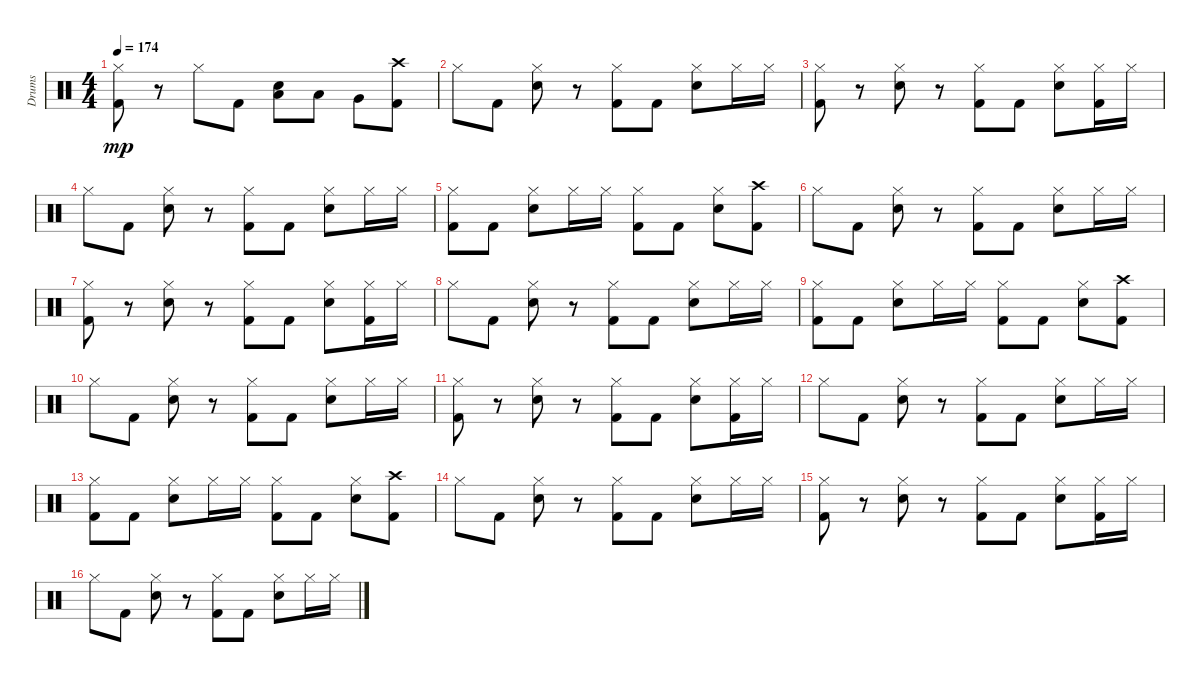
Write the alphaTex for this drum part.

\track ("Drums" "Drums") {instrument percussion}
\staff {score}
\articulation defaults
\ts (4 4)
\tempo 174
\clef neutral
\ks c
("Hi-Hat (closed)" "Kick (hit) 2").8{dy mp} r.8 "Hi-Hat (closed)".8 "Kick (hit) 2".8 ("Snare (hit) 2" "Low Floor Tom (hit)").8 "Low Tom (hit)".8 "Very Low Tom (hit)".8 ("Crash high (hit)" "Kick (hit) 2").8 |
"Hi-Hat (closed)".8 "Kick (hit) 2".8 ("Hi-Hat (closed)" "Snare (hit) 2").8 r.8 ("Hi-Hat (closed)" "Kick (hit) 2").8 "Kick (hit) 2".8 ("Hi-Hat (closed)" "Snare (hit) 2").8 "Hi-Hat (closed)".16 "Hi-Hat (closed)".16 |
("Kick (hit) 2" "Hi-Hat (closed)").8 r.8 ("Hi-Hat (closed)" "Snare (hit) 2").8 r.8 ("Kick (hit) 2" "Hi-Hat (closed)").8 "Kick (hit) 2".8 ("Hi-Hat (closed)" "Snare (hit) 2").8 ("Kick (hit) 2" "Hi-Hat (closed)").16 "Hi-Hat (closed)".16 |
"Hi-Hat (closed)".8 "Kick (hit) 2".8 ("Snare (hit) 2" "Hi-Hat (closed)").8 r.8 ("Kick (hit) 2" "Hi-Hat (closed)").8 "Kick (hit) 2".8 ("Snare (hit) 2" "Hi-Hat (closed)").8 "Hi-Hat (closed)".16 "Hi-Hat (closed)".16 |
("Kick (hit) 2" "Hi-Hat (closed)").8 "Kick (hit) 2".8 ("Hi-Hat (closed)" "Snare (hit) 2").8 "Hi-Hat (closed)".16 "Hi-Hat (closed)".16 ("Hi-Hat (closed)" "Kick (hit) 2").8 "Kick (hit) 2".8 ("Hi-Hat (closed)" "Snare (hit) 2").8 ("Crash high (hit)" "Kick (hit) 2").8 |
"Hi-Hat (closed)".8 "Kick (hit) 2".8 ("Hi-Hat (closed)" "Snare (hit) 2").8 r.8 ("Kick (hit) 2" "Hi-Hat (closed)").8 "Kick (hit) 2".8 ("Hi-Hat (closed)" "Snare (hit) 2").8 "Hi-Hat (closed)".16 "Hi-Hat (closed)".16 |
("Kick (hit) 2" "Hi-Hat (closed)").8 r.8 ("Hi-Hat (closed)" "Snare (hit) 2").8 r.8 ("Kick (hit) 2" "Hi-Hat (closed)").8 "Kick (hit) 2".8 ("Snare (hit) 2" "Hi-Hat (closed)").8 ("Hi-Hat (closed)" "Kick (hit) 2").16 "Hi-Hat (closed)".16 |
"Hi-Hat (closed)".8 "Kick (hit) 2".8 ("Snare (hit) 2" "Hi-Hat (closed)").8 r.8 ("Hi-Hat (closed)" "Kick (hit) 2").8 "Kick (hit) 2".8 ("Hi-Hat (closed)" "Snare (hit) 2").8 "Hi-Hat (closed)".16 "Hi-Hat (closed)".16 |
("Hi-Hat (closed)" "Kick (hit) 2").8 "Kick (hit) 2".8 ("Hi-Hat (closed)" "Snare (hit) 2").8 "Hi-Hat (closed)".16 "Hi-Hat (closed)".16 ("Kick (hit) 2" "Hi-Hat (closed)").8 "Kick (hit) 2".8 ("Hi-Hat (closed)" "Snare (hit) 2").8 ("Kick (hit) 2" "Crash high (hit)").8 |
"Hi-Hat (closed)".8 "Kick (hit) 2".8 ("Snare (hit) 2" "Hi-Hat (closed)").8 r.8 ("Kick (hit) 2" "Hi-Hat (closed)").8 "Kick (hit) 2".8 ("Hi-Hat (closed)" "Snare (hit) 2").8 "Hi-Hat (closed)".16 "Hi-Hat (closed)".16 |
("Kick (hit) 2" "Hi-Hat (closed)").8 r.8 ("Hi-Hat (closed)" "Snare (hit) 2").8 r.8 ("Hi-Hat (closed)" "Kick (hit) 2").8 "Kick (hit) 2".8 ("Snare (hit) 2" "Hi-Hat (closed)").8 ("Kick (hit) 2" "Hi-Hat (closed)").16 "Hi-Hat (closed)".16 |
"Hi-Hat (closed)".8 "Kick (hit) 2".8 ("Hi-Hat (closed)" "Snare (hit) 2").8 r.8 ("Hi-Hat (closed)" "Kick (hit) 2").8 "Kick (hit) 2".8 ("Hi-Hat (closed)" "Snare (hit) 2").8 "Hi-Hat (closed)".16 "Hi-Hat (closed)".16 |
("Hi-Hat (closed)" "Kick (hit) 2").8 "Kick (hit) 2".8 ("Snare (hit) 2" "Hi-Hat (closed)").8 "Hi-Hat (closed)".16 "Hi-Hat (closed)".16 ("Hi-Hat (closed)" "Kick (hit) 2").8 "Kick (hit) 2".8 ("Hi-Hat (closed)" "Snare (hit) 2").8 ("Crash high (hit)" "Kick (hit) 2").8 |
"Hi-Hat (closed)".8 "Kick (hit) 2".8 ("Snare (hit) 2" "Hi-Hat (closed)").8 r.8 ("Kick (hit) 2" "Hi-Hat (closed)").8 "Kick (hit) 2".8 ("Hi-Hat (closed)" "Snare (hit) 2").8 "Hi-Hat (closed)".16 "Hi-Hat (closed)".16 |
("Hi-Hat (closed)" "Kick (hit) 2").8 r.8 ("Snare (hit) 2" "Hi-Hat (closed)").8 r.8 ("Kick (hit) 2" "Hi-Hat (closed)").8 "Kick (hit) 2".8 ("Snare (hit) 2" "Hi-Hat (closed)").8 ("Kick (hit) 2" "Hi-Hat (closed)").16 "Hi-Hat (closed)".16 |
"Hi-Hat (closed)".8 "Kick (hit) 2".8 ("Snare (hit) 2" "Hi-Hat (closed)").8 r.8 ("Hi-Hat (closed)" "Kick (hit) 2").8 "Kick (hit) 2".8 ("Snare (hit) 2" "Hi-Hat (closed)").8 "Hi-Hat (closed)".16 "Hi-Hat (closed)".16
